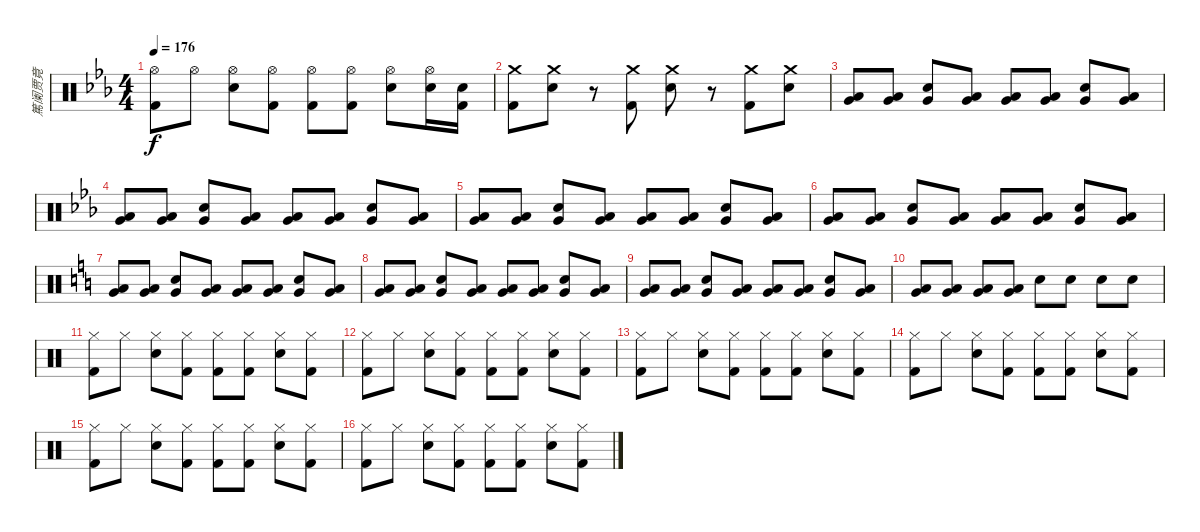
\track ("篤阑贾竟" "篤阑贾竟") {instrument percussion}
\staff {score}
\articulation defaults
\ts (4 4)
\tempo 176
\clef neutral
\ks eb
("Hi-Hat (open)" "Kick (hit) 2").8{dy f} "Hi-Hat (open)".8 ("Hi-Hat (open)" "Snare (hit) 2").8 ("Hi-Hat (open)" "Kick (hit) 2").8 ("Hi-Hat (open)" "Kick (hit) 2").8 ("Hi-Hat (open)" "Kick (hit) 2").8 ("Hi-Hat (open)" "Snare (hit) 2").8 ("Hi-Hat (open)" "Snare (hit) 2").16 ("Snare (hit) 2" "Kick (hit) 2").16 |
("Crash medium (hit)" "Kick (hit) 2").8 ("Crash medium (hit)" "Snare (hit) 2").8 r.8 ("Crash medium (hit)" "Kick (hit) 2").8 ("Crash medium (hit)" "Snare (hit) 2").8 r.8 ("Crash medium (hit)" "Kick (hit) 2").8 ("Crash medium (hit)" "Snare (hit) 2").8 |
("Very Low Tom (hit)" "Low Floor Tom (hit)").8 ("Very Low Tom (hit)" "Low Floor Tom (hit)").8 ("Very Low Tom (hit)" "Snare (hit) 2").8 ("Very Low Tom (hit)" "Low Floor Tom (hit)").8 ("Very Low Tom (hit)" "Low Floor Tom (hit)").8 ("Very Low Tom (hit)" "Low Floor Tom (hit)").8 ("Very Low Tom (hit)" "Snare (hit) 2").8 ("Very Low Tom (hit)" "Low Floor Tom (hit)").8 |
("Very Low Tom (hit)" "Low Floor Tom (hit)").8 ("Very Low Tom (hit)" "Low Floor Tom (hit)").8 ("Very Low Tom (hit)" "Snare (hit) 2").8 ("Very Low Tom (hit)" "Low Floor Tom (hit)").8 ("Very Low Tom (hit)" "Low Floor Tom (hit)").8 ("Very Low Tom (hit)" "Low Floor Tom (hit)").8 ("Very Low Tom (hit)" "Snare (hit) 2").8 ("Very Low Tom (hit)" "Low Floor Tom (hit)").8 |
("Very Low Tom (hit)" "Low Floor Tom (hit)").8 ("Very Low Tom (hit)" "Low Floor Tom (hit)").8 ("Very Low Tom (hit)" "Snare (hit) 2").8 ("Very Low Tom (hit)" "Low Floor Tom (hit)").8 ("Very Low Tom (hit)" "Low Floor Tom (hit)").8 ("Very Low Tom (hit)" "Low Floor Tom (hit)").8 ("Very Low Tom (hit)" "Snare (hit) 2").8 ("Very Low Tom (hit)" "Low Floor Tom (hit)").8 |
("Very Low Tom (hit)" "Low Floor Tom (hit)").8 ("Very Low Tom (hit)" "Low Floor Tom (hit)").8 ("Very Low Tom (hit)" "Snare (hit) 2").8 ("Very Low Tom (hit)" "Low Floor Tom (hit)").8 ("Very Low Tom (hit)" "Low Floor Tom (hit)").8 ("Very Low Tom (hit)" "Low Floor Tom (hit)").8 ("Very Low Tom (hit)" "Snare (hit) 2").8 ("Very Low Tom (hit)" "Low Floor Tom (hit)").8 |
\ks c
("Very Low Tom (hit)" "Low Floor Tom (hit)").8 ("Very Low Tom (hit)" "Low Floor Tom (hit)").8 ("Very Low Tom (hit)" "Snare (hit) 2").8 ("Very Low Tom (hit)" "Low Floor Tom (hit)").8 ("Very Low Tom (hit)" "Low Floor Tom (hit)").8 ("Very Low Tom (hit)" "Low Floor Tom (hit)").8 ("Very Low Tom (hit)" "Snare (hit) 2").8 ("Very Low Tom (hit)" "Low Floor Tom (hit)").8 |
("Very Low Tom (hit)" "Low Floor Tom (hit)").8 ("Very Low Tom (hit)" "Low Floor Tom (hit)").8 ("Very Low Tom (hit)" "Snare (hit) 2").8 ("Very Low Tom (hit)" "Low Floor Tom (hit)").8 ("Very Low Tom (hit)" "Low Floor Tom (hit)").8 ("Very Low Tom (hit)" "Low Floor Tom (hit)").8 ("Very Low Tom (hit)" "Snare (hit) 2").8 ("Very Low Tom (hit)" "Low Floor Tom (hit)").8 |
("Very Low Tom (hit)" "Low Floor Tom (hit)").8 ("Very Low Tom (hit)" "Low Floor Tom (hit)").8 ("Very Low Tom (hit)" "Snare (hit) 2").8 ("Very Low Tom (hit)" "Low Floor Tom (hit)").8 ("Very Low Tom (hit)" "Low Floor Tom (hit)").8 ("Very Low Tom (hit)" "Low Floor Tom (hit)").8 ("Very Low Tom (hit)" "Snare (hit) 2").8 ("Very Low Tom (hit)" "Low Floor Tom (hit)").8 |
("Very Low Tom (hit)" "Low Floor Tom (hit)").8 ("Very Low Tom (hit)" "Low Floor Tom (hit)").8 ("Very Low Tom (hit)" "Low Floor Tom (hit)").8 ("Very Low Tom (hit)" "Low Floor Tom (hit)").8 "Snare (hit) 2".8 "Snare (hit) 2".8 "Snare (hit) 2".8 "Snare (hit) 2".8 |
("Hi-Hat (closed)" "Kick (hit) 2").8 "Hi-Hat (closed)".8 ("Hi-Hat (closed)" "Snare (hit) 2").8 ("Hi-Hat (closed)" "Kick (hit) 2").8 ("Hi-Hat (closed)" "Kick (hit) 2").8 ("Hi-Hat (closed)" "Kick (hit) 2").8 ("Hi-Hat (closed)" "Snare (hit) 2").8 ("Hi-Hat (closed)" "Kick (hit) 2").8 |
("Hi-Hat (closed)" "Kick (hit) 2").8 "Hi-Hat (closed)".8 ("Hi-Hat (closed)" "Snare (hit) 2").8 ("Hi-Hat (closed)" "Kick (hit) 2").8 ("Hi-Hat (closed)" "Kick (hit) 2").8 ("Hi-Hat (closed)" "Kick (hit) 2").8 ("Hi-Hat (closed)" "Snare (hit) 2").8 ("Hi-Hat (closed)" "Kick (hit) 2").8 |
("Hi-Hat (closed)" "Kick (hit) 2").8 "Hi-Hat (closed)".8 ("Hi-Hat (closed)" "Snare (hit) 2").8 ("Hi-Hat (closed)" "Kick (hit) 2").8 ("Hi-Hat (closed)" "Kick (hit) 2").8 ("Hi-Hat (closed)" "Kick (hit) 2").8 ("Hi-Hat (closed)" "Snare (hit) 2").8 ("Hi-Hat (closed)" "Kick (hit) 2").8 |
("Hi-Hat (closed)" "Kick (hit) 2").8 "Hi-Hat (closed)".8 ("Hi-Hat (closed)" "Snare (hit) 2").8 ("Hi-Hat (closed)" "Kick (hit) 2").8 ("Hi-Hat (closed)" "Kick (hit) 2").8 ("Hi-Hat (closed)" "Kick (hit) 2").8 ("Hi-Hat (closed)" "Snare (hit) 2").8 ("Hi-Hat (closed)" "Kick (hit) 2").8 |
("Hi-Hat (closed)" "Kick (hit) 2").8 "Hi-Hat (closed)".8 ("Hi-Hat (closed)" "Snare (hit) 2").8 ("Hi-Hat (closed)" "Kick (hit) 2").8 ("Hi-Hat (closed)" "Kick (hit) 2").8 ("Hi-Hat (closed)" "Kick (hit) 2").8 ("Hi-Hat (closed)" "Snare (hit) 2").8 ("Hi-Hat (closed)" "Kick (hit) 2").8 |
("Hi-Hat (closed)" "Kick (hit) 2").8 "Hi-Hat (closed)".8 ("Hi-Hat (closed)" "Snare (hit) 2").8 ("Hi-Hat (closed)" "Kick (hit) 2").8 ("Hi-Hat (closed)" "Kick (hit) 2").8 ("Hi-Hat (closed)" "Kick (hit) 2").8 ("Hi-Hat (closed)" "Snare (hit) 2").8 ("Hi-Hat (closed)" "Kick (hit) 2").8
